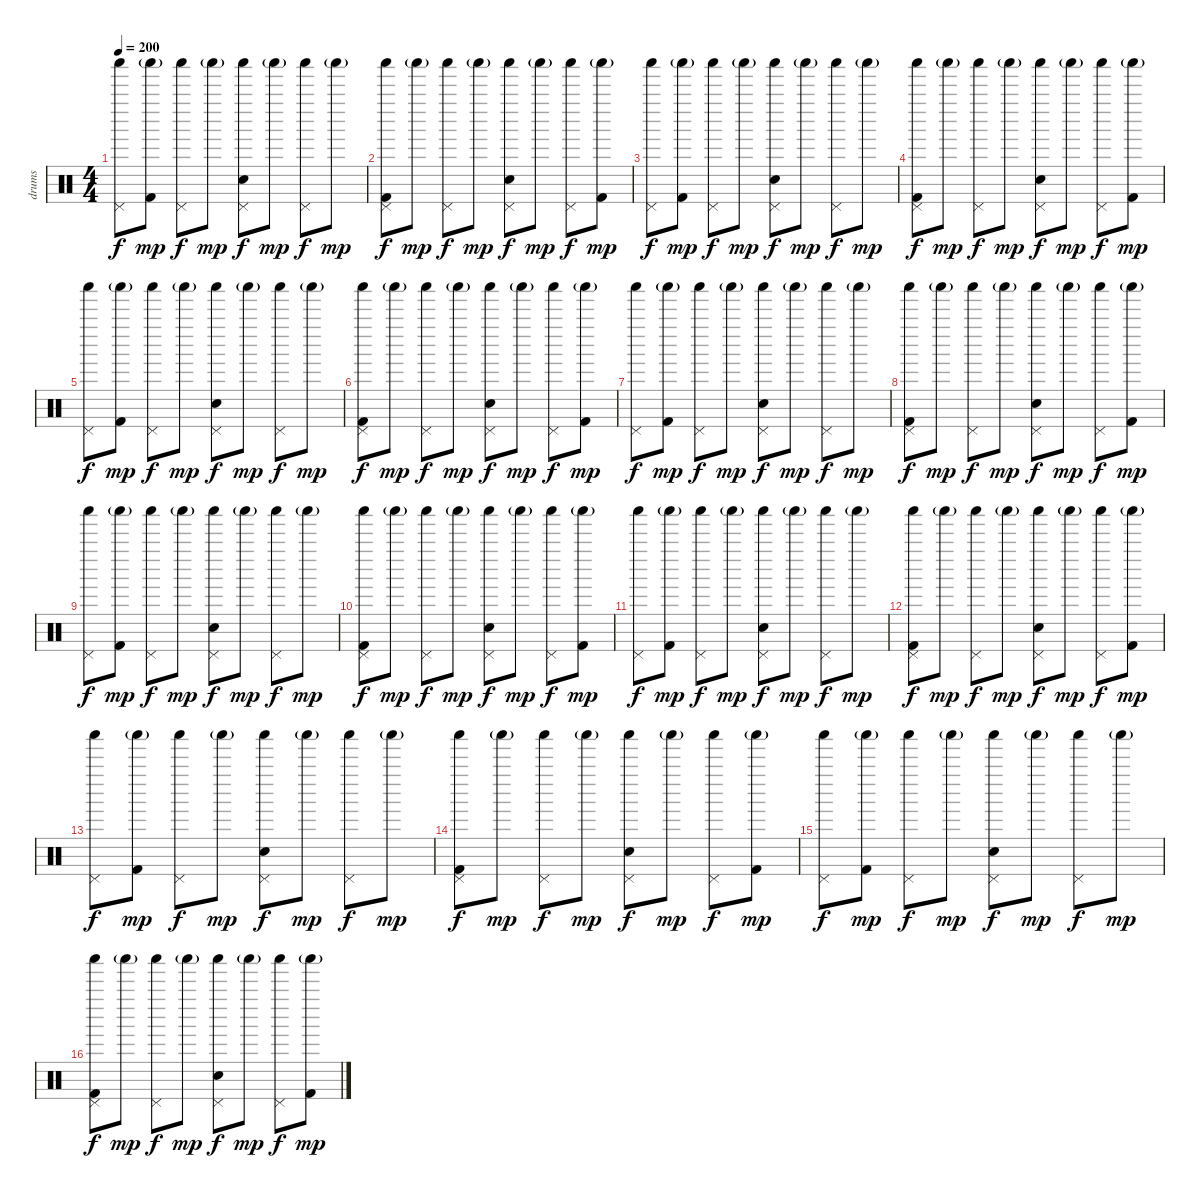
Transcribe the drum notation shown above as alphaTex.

\track ("drums" "drums") {instrument percussion}
\staff {score}
\articulation defaults
\ts (4 4)
\tempo 200
\clef neutral
\ks c
("Shaker (hit)" "Pedal Hi-Hat (hit)").8{dy f} ("Kick (hit) 2" "Shaker (hit)"{g}).8{dy mp} ("Shaker (hit)" "Pedal Hi-Hat (hit)").8{dy f} "Shaker (hit)"{g}.8{dy mp} ("Electric Snare (hit)" "Shaker (hit)" "Pedal Hi-Hat (hit)").8{dy f} "Shaker (hit)"{g}.8{dy mp} ("Shaker (hit)" "Pedal Hi-Hat (hit)").8{dy f} "Shaker (hit)"{g}.8{dy mp} |
("Kick (hit) 2" "Shaker (hit)" "Pedal Hi-Hat (hit)").8{dy f} "Shaker (hit)"{g}.8{dy mp} ("Shaker (hit)" "Pedal Hi-Hat (hit)").8{dy f} "Shaker (hit)"{g}.8{dy mp} ("Electric Snare (hit)" "Shaker (hit)" "Pedal Hi-Hat (hit)").8{dy f} "Shaker (hit)"{g}.8{dy mp} ("Shaker (hit)" "Pedal Hi-Hat (hit)").8{dy f} ("Kick (hit) 2" "Shaker (hit)"{g}).8{dy mp} |
("Shaker (hit)" "Pedal Hi-Hat (hit)").8{dy f} ("Kick (hit) 2" "Shaker (hit)"{g}).8{dy mp} ("Shaker (hit)" "Pedal Hi-Hat (hit)").8{dy f} "Shaker (hit)"{g}.8{dy mp} ("Electric Snare (hit)" "Shaker (hit)" "Pedal Hi-Hat (hit)").8{dy f} "Shaker (hit)"{g}.8{dy mp} ("Shaker (hit)" "Pedal Hi-Hat (hit)").8{dy f} "Shaker (hit)"{g}.8{dy mp} |
("Kick (hit) 2" "Shaker (hit)" "Pedal Hi-Hat (hit)").8{dy f} "Shaker (hit)"{g}.8{dy mp} ("Shaker (hit)" "Pedal Hi-Hat (hit)").8{dy f} "Shaker (hit)"{g}.8{dy mp} ("Electric Snare (hit)" "Shaker (hit)" "Pedal Hi-Hat (hit)").8{dy f} "Shaker (hit)"{g}.8{dy mp} ("Shaker (hit)" "Pedal Hi-Hat (hit)").8{dy f} ("Kick (hit) 2" "Shaker (hit)"{g}).8{dy mp} |
("Shaker (hit)" "Pedal Hi-Hat (hit)").8{dy f} ("Kick (hit) 2" "Shaker (hit)"{g}).8{dy mp} ("Shaker (hit)" "Pedal Hi-Hat (hit)").8{dy f} "Shaker (hit)"{g}.8{dy mp} ("Electric Snare (hit)" "Shaker (hit)" "Pedal Hi-Hat (hit)").8{dy f} "Shaker (hit)"{g}.8{dy mp} ("Shaker (hit)" "Pedal Hi-Hat (hit)").8{dy f} "Shaker (hit)"{g}.8{dy mp} |
("Kick (hit) 2" "Shaker (hit)" "Pedal Hi-Hat (hit)").8{dy f} "Shaker (hit)"{g}.8{dy mp} ("Shaker (hit)" "Pedal Hi-Hat (hit)").8{dy f} "Shaker (hit)"{g}.8{dy mp} ("Electric Snare (hit)" "Shaker (hit)" "Pedal Hi-Hat (hit)").8{dy f} "Shaker (hit)"{g}.8{dy mp} ("Shaker (hit)" "Pedal Hi-Hat (hit)").8{dy f} ("Kick (hit) 2" "Shaker (hit)"{g}).8{dy mp} |
("Shaker (hit)" "Pedal Hi-Hat (hit)").8{dy f} ("Kick (hit) 2" "Shaker (hit)"{g}).8{dy mp} ("Shaker (hit)" "Pedal Hi-Hat (hit)").8{dy f} "Shaker (hit)"{g}.8{dy mp} ("Electric Snare (hit)" "Shaker (hit)" "Pedal Hi-Hat (hit)").8{dy f} "Shaker (hit)"{g}.8{dy mp} ("Shaker (hit)" "Pedal Hi-Hat (hit)").8{dy f} "Shaker (hit)"{g}.8{dy mp} |
("Kick (hit) 2" "Shaker (hit)" "Pedal Hi-Hat (hit)").8{dy f} "Shaker (hit)"{g}.8{dy mp} ("Shaker (hit)" "Pedal Hi-Hat (hit)").8{dy f} "Shaker (hit)"{g}.8{dy mp} ("Electric Snare (hit)" "Shaker (hit)" "Pedal Hi-Hat (hit)").8{dy f} "Shaker (hit)"{g}.8{dy mp} ("Shaker (hit)" "Pedal Hi-Hat (hit)").8{dy f} ("Kick (hit) 2" "Shaker (hit)"{g}).8{dy mp} |
("Shaker (hit)" "Pedal Hi-Hat (hit)").8{dy f} ("Kick (hit) 2" "Shaker (hit)"{g}).8{dy mp} ("Shaker (hit)" "Pedal Hi-Hat (hit)").8{dy f} "Shaker (hit)"{g}.8{dy mp} ("Electric Snare (hit)" "Shaker (hit)" "Pedal Hi-Hat (hit)").8{dy f} "Shaker (hit)"{g}.8{dy mp} ("Shaker (hit)" "Pedal Hi-Hat (hit)").8{dy f} "Shaker (hit)"{g}.8{dy mp} |
("Kick (hit) 2" "Shaker (hit)" "Pedal Hi-Hat (hit)").8{dy f} "Shaker (hit)"{g}.8{dy mp} ("Shaker (hit)" "Pedal Hi-Hat (hit)").8{dy f} "Shaker (hit)"{g}.8{dy mp} ("Electric Snare (hit)" "Shaker (hit)" "Pedal Hi-Hat (hit)").8{dy f} "Shaker (hit)"{g}.8{dy mp} ("Shaker (hit)" "Pedal Hi-Hat (hit)").8{dy f} ("Kick (hit) 2" "Shaker (hit)"{g}).8{dy mp} |
("Shaker (hit)" "Pedal Hi-Hat (hit)").8{dy f} ("Kick (hit) 2" "Shaker (hit)"{g}).8{dy mp} ("Shaker (hit)" "Pedal Hi-Hat (hit)").8{dy f} "Shaker (hit)"{g}.8{dy mp} ("Electric Snare (hit)" "Shaker (hit)" "Pedal Hi-Hat (hit)").8{dy f} "Shaker (hit)"{g}.8{dy mp} ("Shaker (hit)" "Pedal Hi-Hat (hit)").8{dy f} "Shaker (hit)"{g}.8{dy mp} |
("Kick (hit) 2" "Shaker (hit)" "Pedal Hi-Hat (hit)").8{dy f} "Shaker (hit)"{g}.8{dy mp} ("Shaker (hit)" "Pedal Hi-Hat (hit)").8{dy f} "Shaker (hit)"{g}.8{dy mp} ("Electric Snare (hit)" "Shaker (hit)" "Pedal Hi-Hat (hit)").8{dy f} "Shaker (hit)"{g}.8{dy mp} ("Shaker (hit)" "Pedal Hi-Hat (hit)").8{dy f} ("Kick (hit) 2" "Shaker (hit)"{g}).8{dy mp} |
("Shaker (hit)" "Pedal Hi-Hat (hit)").8{dy f} ("Kick (hit) 2" "Shaker (hit)"{g}).8{dy mp} ("Shaker (hit)" "Pedal Hi-Hat (hit)").8{dy f} "Shaker (hit)"{g}.8{dy mp} ("Electric Snare (hit)" "Shaker (hit)" "Pedal Hi-Hat (hit)").8{dy f} "Shaker (hit)"{g}.8{dy mp} ("Shaker (hit)" "Pedal Hi-Hat (hit)").8{dy f} "Shaker (hit)"{g}.8{dy mp} |
("Kick (hit) 2" "Shaker (hit)" "Pedal Hi-Hat (hit)").8{dy f} "Shaker (hit)"{g}.8{dy mp} ("Shaker (hit)" "Pedal Hi-Hat (hit)").8{dy f} "Shaker (hit)"{g}.8{dy mp} ("Electric Snare (hit)" "Shaker (hit)" "Pedal Hi-Hat (hit)").8{dy f} "Shaker (hit)"{g}.8{dy mp} ("Shaker (hit)" "Pedal Hi-Hat (hit)").8{dy f} ("Kick (hit) 2" "Shaker (hit)"{g}).8{dy mp} |
("Shaker (hit)" "Pedal Hi-Hat (hit)").8{dy f} ("Kick (hit) 2" "Shaker (hit)"{g}).8{dy mp} ("Shaker (hit)" "Pedal Hi-Hat (hit)").8{dy f} "Shaker (hit)"{g}.8{dy mp} ("Electric Snare (hit)" "Shaker (hit)" "Pedal Hi-Hat (hit)").8{dy f} "Shaker (hit)"{g}.8{dy mp} ("Shaker (hit)" "Pedal Hi-Hat (hit)").8{dy f} "Shaker (hit)"{g}.8{dy mp} |
("Kick (hit) 2" "Shaker (hit)" "Pedal Hi-Hat (hit)").8{dy f} "Shaker (hit)"{g}.8{dy mp} ("Shaker (hit)" "Pedal Hi-Hat (hit)").8{dy f} "Shaker (hit)"{g}.8{dy mp} ("Electric Snare (hit)" "Shaker (hit)" "Pedal Hi-Hat (hit)").8{dy f} "Shaker (hit)"{g}.8{dy mp} ("Shaker (hit)" "Pedal Hi-Hat (hit)").8{dy f} ("Kick (hit) 2" "Shaker (hit)"{g}).8{dy mp}
